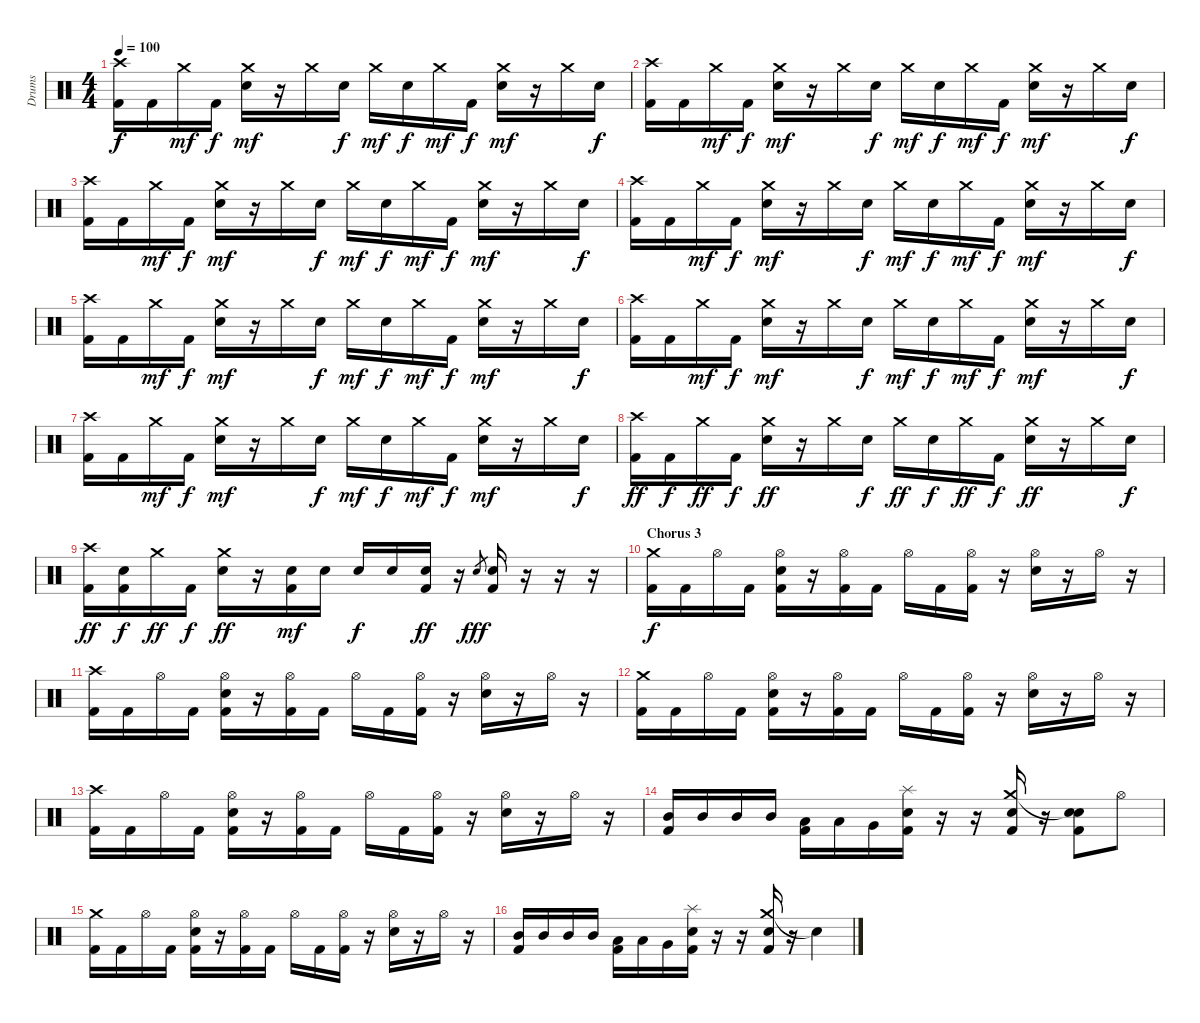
\track ("Drums" "Drums") {instrument percussion}
\staff {score}
\articulation defaults
\ts (4 4)
\tempo 100
\clef neutral
\ks c
("Crash high (hit)" "Kick (hit) 2").16{dy f} "Kick (hit) 2".16 "Crash medium (hit)".16{dy mf} "Kick (hit) 2".16{dy f} ("Crash medium (hit)" "Snare (hit) 2").16{dy mf} r.16 "Crash medium (hit)".16 "Snare (hit) 2".16{dy f} "Crash medium (hit)".16{dy mf} "Snare (hit) 2".16{dy f} "Crash medium (hit)".16{dy mf} "Kick (hit) 2".16{dy f} ("Crash medium (hit)" "Snare (hit) 2").16{dy mf} r.16 "Crash medium (hit)".16 "Snare (hit) 2".16{dy f} |
("Crash high (hit)" "Kick (hit) 2").16 "Kick (hit) 2".16 "Crash medium (hit)".16{dy mf} "Kick (hit) 2".16{dy f} ("Crash medium (hit)" "Snare (hit) 2").16{dy mf} r.16 "Crash medium (hit)".16 "Snare (hit) 2".16{dy f} "Crash medium (hit)".16{dy mf} "Snare (hit) 2".16{dy f} "Crash medium (hit)".16{dy mf} "Kick (hit) 2".16{dy f} ("Crash medium (hit)" "Snare (hit) 2").16{dy mf} r.16 "Crash medium (hit)".16 "Snare (hit) 2".16{dy f} |
("Crash high (hit)" "Kick (hit) 2").16 "Kick (hit) 2".16 "Crash medium (hit)".16{dy mf} "Kick (hit) 2".16{dy f} ("Crash medium (hit)" "Snare (hit) 2").16{dy mf} r.16 "Crash medium (hit)".16 "Snare (hit) 2".16{dy f} "Crash medium (hit)".16{dy mf} "Snare (hit) 2".16{dy f} "Crash medium (hit)".16{dy mf} "Kick (hit) 2".16{dy f} ("Crash medium (hit)" "Snare (hit) 2").16{dy mf} r.16 "Crash medium (hit)".16 "Snare (hit) 2".16{dy f} |
("Crash high (hit)" "Kick (hit) 2").16 "Kick (hit) 2".16 "Crash medium (hit)".16{dy mf} "Kick (hit) 2".16{dy f} ("Crash medium (hit)" "Snare (hit) 2").16{dy mf} r.16 "Crash medium (hit)".16 "Snare (hit) 2".16{dy f} "Crash medium (hit)".16{dy mf} "Snare (hit) 2".16{dy f} "Crash medium (hit)".16{dy mf} "Kick (hit) 2".16{dy f} ("Crash medium (hit)" "Snare (hit) 2").16{dy mf} r.16 "Crash medium (hit)".16 "Snare (hit) 2".16{dy f} |
("Crash high (hit)" "Kick (hit) 2").16 "Kick (hit) 2".16 "Crash medium (hit)".16{dy mf} "Kick (hit) 2".16{dy f} ("Crash medium (hit)" "Snare (hit) 2").16{dy mf} r.16 "Crash medium (hit)".16 "Snare (hit) 2".16{dy f} "Crash medium (hit)".16{dy mf} "Snare (hit) 2".16{dy f} "Crash medium (hit)".16{dy mf} "Kick (hit) 2".16{dy f} ("Crash medium (hit)" "Snare (hit) 2").16{dy mf} r.16 "Crash medium (hit)".16 "Snare (hit) 2".16{dy f} |
("Crash high (hit)" "Kick (hit) 2").16 "Kick (hit) 2".16 "Crash medium (hit)".16{dy mf} "Kick (hit) 2".16{dy f} ("Crash medium (hit)" "Snare (hit) 2").16{dy mf} r.16 "Crash medium (hit)".16 "Snare (hit) 2".16{dy f} "Crash medium (hit)".16{dy mf} "Snare (hit) 2".16{dy f} "Crash medium (hit)".16{dy mf} "Kick (hit) 2".16{dy f} ("Crash medium (hit)" "Snare (hit) 2").16{dy mf} r.16 "Crash medium (hit)".16 "Snare (hit) 2".16{dy f} |
("Crash high (hit)" "Kick (hit) 2").16 "Kick (hit) 2".16 "Crash medium (hit)".16{dy mf} "Kick (hit) 2".16{dy f} ("Crash medium (hit)" "Snare (hit) 2").16{dy mf} r.16 "Crash medium (hit)".16 "Snare (hit) 2".16{dy f} "Crash medium (hit)".16{dy mf} "Snare (hit) 2".16{dy f} "Crash medium (hit)".16{dy mf} "Kick (hit) 2".16{dy f} ("Crash medium (hit)" "Snare (hit) 2").16{dy mf} r.16 "Crash medium (hit)".16 "Snare (hit) 2".16{dy f} |
("Crash high (hit)" "Kick (hit) 2").16{dy ff} "Kick (hit) 2".16{dy f} "Crash medium (hit)".16{dy ff} "Kick (hit) 2".16{dy f} ("Crash medium (hit)" "Snare (hit) 2").16{dy ff} r.16 "Crash medium (hit)".16 "Snare (hit) 2".16{dy f} "Crash medium (hit)".16{dy ff} "Snare (hit) 2".16{dy f} "Crash medium (hit)".16{dy ff} "Kick (hit) 2".16{dy f} ("Crash medium (hit)" "Snare (hit) 2").16{dy ff} r.16 "Crash medium (hit)".16 "Snare (hit) 2".16{dy f} |
("Crash high (hit)" "Kick (hit) 2").16{dy ff} ("Snare (hit) 2" "Kick (hit) 2").16{dy f} "Crash medium (hit)".16{dy ff} "Kick (hit) 2".16{dy f} ("Crash medium (hit)" "Snare (hit) 2").16{dy ff} r.16 ("Snare (hit) 2" "Kick (hit) 2").16{dy mf balance 16} "Snare (hit) 2".16{balance 4} "Snare (hit) 2".16{dy f balance 12} "Snare (hit) 2".16{balance 0} ("Snare (hit) 2" "Kick (hit) 2").16{dy ff balance 16} r.16{balance 0} "Snare (hit) 2".8{gr dy fff} ("Snare (hit) 2" "Kick (hit) 2").16{balance 8} r.16 r.16 r.16 |
\section ("" "Chorus 3")
("Crash medium (hit)" "Kick (hit) 2").16{dy f balance 8} "Kick (hit) 2".16 "Hi-Hat (open)".16 "Kick (hit) 2".16 ("Hi-Hat (open)" "Snare (hit) 2" "Kick (hit) 2").16 r.16 ("Hi-Hat (open)" "Kick (hit) 2").16 "Kick (hit) 2".16 "Hi-Hat (open)".16 "Kick (hit) 2".16 ("Hi-Hat (open)" "Kick (hit) 2").16 r.16 ("Hi-Hat (open)" "Snare (hit) 2").16 r.16 "Hi-Hat (open)".16 r.16 |
("Crash high (hit)" "Kick (hit) 2").16 "Kick (hit) 2".16 "Hi-Hat (open)".16 "Kick (hit) 2".16 ("Hi-Hat (open)" "Snare (hit) 2" "Kick (hit) 2").16 r.16 ("Hi-Hat (open)" "Kick (hit) 2").16 "Kick (hit) 2".16 "Hi-Hat (open)".16 "Kick (hit) 2".16 ("Hi-Hat (open)" "Kick (hit) 2").16 r.16 ("Hi-Hat (open)" "Snare (hit) 2").16 r.16 "Hi-Hat (open)".16 r.16 |
("Crash medium (hit)" "Kick (hit) 2").16 "Kick (hit) 2".16 "Hi-Hat (open)".16 "Kick (hit) 2".16 ("Hi-Hat (open)" "Snare (hit) 2" "Kick (hit) 2").16 r.16 ("Hi-Hat (open)" "Kick (hit) 2").16 "Kick (hit) 2".16 "Hi-Hat (open)".16 "Kick (hit) 2".16 ("Hi-Hat (open)" "Kick (hit) 2").16 r.16 ("Hi-Hat (open)" "Snare (hit) 2").16 r.16 "Hi-Hat (open)".16 r.16 |
("Crash high (hit)" "Kick (hit) 2").16 "Kick (hit) 2".16 "Hi-Hat (open)".16 "Kick (hit) 2".16 ("Hi-Hat (open)" "Snare (hit) 2" "Kick (hit) 2").16 r.16 ("Hi-Hat (open)" "Kick (hit) 2").16 "Kick (hit) 2".16 "Hi-Hat (open)".16 "Kick (hit) 2".16 ("Hi-Hat (open)" "Kick (hit) 2").16 r.16 ("Hi-Hat (open)" "Snare (hit) 2").16 r.16 "Hi-Hat (open)".16 r.16 |
("Mid Tom (hit)" "Kick (hit) 2").16 "Mid Tom (hit)".16 "Mid Tom (hit)".16 "Mid Tom (hit)".16 ("Low Tom (hit)" "Kick (hit) 2").16 "Low Tom (hit)".16 "Very Low Tom (hit)".16 ("Splash (hit)" "Snare (hit) 2" "Kick (hit) 2").16 r.16 r.16 ("Crash medium (hit)" "Snare (hit) 2" "Kick (hit) 2").16 r.16 ("Snare (hit)"{t} "Snare (hit) 2" "Kick (hit) 2").8 "Hi-Hat (open)".8 |
("Crash medium (hit)" "Kick (hit) 2").16 "Kick (hit) 2".16 "Hi-Hat (open)".16 "Kick (hit) 2".16 ("Hi-Hat (open)" "Snare (hit) 2" "Kick (hit) 2").16 r.16 ("Hi-Hat (open)" "Kick (hit) 2").16 "Kick (hit) 2".16 "Hi-Hat (open)".16 "Kick (hit) 2".16 ("Hi-Hat (open)" "Kick (hit) 2").16 r.16 ("Hi-Hat (open)" "Snare (hit) 2").16 r.16 "Hi-Hat (open)".16 r.16 |
("Mid Tom (hit)" "Kick (hit) 2").16 "Mid Tom (hit)".16 "Mid Tom (hit)".16 "Mid Tom (hit)".16 ("Low Tom (hit)" "Kick (hit) 2").16 "Low Tom (hit)".16 "Very Low Tom (hit)".16 ("Splash (hit)" "Snare (hit) 2" "Kick (hit) 2").16 r.16 r.16 ("Crash medium (hit)" "Snare (hit) 2" "Kick (hit) 2").16 r.16 "Snare (hit)"{t}.4
